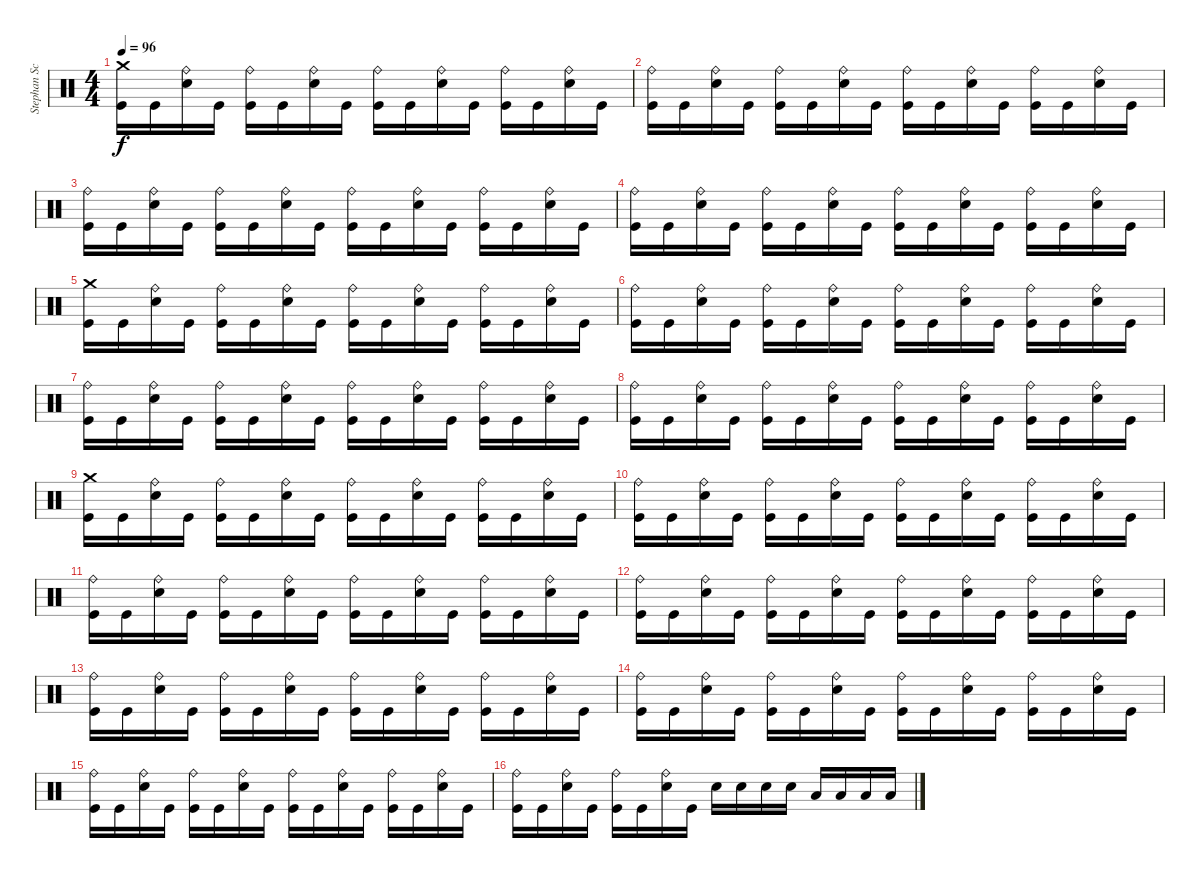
\track ("Stephan Schwarzmann" "Stephan Sc") {instrument percussion}
\staff {score}
\articulation defaults
\ts (4 4)
\tempo 96
\clef neutral
\ks c
("Kick (hit)" "Crash medium (hit)").16{dy f} "Kick (hit)".16 ("Snare (hit) 2" "Ride (bell)").16 "Kick (hit)".16 ("Kick (hit)" "Ride (bell)").16 "Kick (hit)".16 ("Snare (hit) 2" "Ride (bell)").16 "Kick (hit)".16 ("Kick (hit)" "Ride (bell)").16 "Kick (hit)".16 ("Snare (hit) 2" "Ride (bell)").16 "Kick (hit)".16 ("Kick (hit)" "Ride (bell)").16 "Kick (hit)".16 ("Snare (hit) 2" "Ride (bell)").16 "Kick (hit)".16 |
("Kick (hit)" "Ride (bell)").16 "Kick (hit)".16 ("Snare (hit) 2" "Ride (bell)").16 "Kick (hit)".16 ("Kick (hit)" "Ride (bell)").16 "Kick (hit)".16 ("Snare (hit) 2" "Ride (bell)").16 "Kick (hit)".16 ("Kick (hit)" "Ride (bell)").16 "Kick (hit)".16 ("Snare (hit) 2" "Ride (bell)").16 "Kick (hit)".16 ("Kick (hit)" "Ride (bell)").16 "Kick (hit)".16 ("Snare (hit) 2" "Ride (bell)").16 "Kick (hit)".16 |
("Kick (hit)" "Ride (bell)").16 "Kick (hit)".16 ("Snare (hit) 2" "Ride (bell)").16 "Kick (hit)".16 ("Kick (hit)" "Ride (bell)").16 "Kick (hit)".16 ("Snare (hit) 2" "Ride (bell)").16 "Kick (hit)".16 ("Kick (hit)" "Ride (bell)").16 "Kick (hit)".16 ("Snare (hit) 2" "Ride (bell)").16 "Kick (hit)".16 ("Kick (hit)" "Ride (bell)").16 "Kick (hit)".16 ("Snare (hit) 2" "Ride (bell)").16 "Kick (hit)".16 |
("Kick (hit)" "Ride (bell)").16 "Kick (hit)".16 ("Snare (hit) 2" "Ride (bell)").16 "Kick (hit)".16 ("Kick (hit)" "Ride (bell)").16 "Kick (hit)".16 ("Snare (hit) 2" "Ride (bell)").16 "Kick (hit)".16 ("Kick (hit)" "Ride (bell)").16 "Kick (hit)".16 ("Snare (hit) 2" "Ride (bell)").16 "Kick (hit)".16 ("Kick (hit)" "Ride (bell)").16 "Kick (hit)".16 ("Snare (hit) 2" "Ride (bell)").16 "Kick (hit)".16 |
("Kick (hit)" "Crash medium (hit)").16 "Kick (hit)".16 ("Snare (hit) 2" "Ride (bell)").16 "Kick (hit)".16 ("Kick (hit)" "Ride (bell)").16 "Kick (hit)".16 ("Snare (hit) 2" "Ride (bell)").16 "Kick (hit)".16 ("Kick (hit)" "Ride (bell)").16 "Kick (hit)".16 ("Snare (hit) 2" "Ride (bell)").16 "Kick (hit)".16 ("Kick (hit)" "Ride (bell)").16 "Kick (hit)".16 ("Snare (hit) 2" "Ride (bell)").16 "Kick (hit)".16 |
("Kick (hit)" "Ride (bell)").16 "Kick (hit)".16 ("Snare (hit) 2" "Ride (bell)").16 "Kick (hit)".16 ("Kick (hit)" "Ride (bell)").16 "Kick (hit)".16 ("Snare (hit) 2" "Ride (bell)").16 "Kick (hit)".16 ("Kick (hit)" "Ride (bell)").16 "Kick (hit)".16 ("Snare (hit) 2" "Ride (bell)").16 "Kick (hit)".16 ("Kick (hit)" "Ride (bell)").16 "Kick (hit)".16 ("Snare (hit) 2" "Ride (bell)").16 "Kick (hit)".16 |
("Kick (hit)" "Ride (bell)").16 "Kick (hit)".16 ("Snare (hit) 2" "Ride (bell)").16 "Kick (hit)".16 ("Kick (hit)" "Ride (bell)").16 "Kick (hit)".16 ("Snare (hit) 2" "Ride (bell)").16 "Kick (hit)".16 ("Kick (hit)" "Ride (bell)").16 "Kick (hit)".16 ("Snare (hit) 2" "Ride (bell)").16 "Kick (hit)".16 ("Kick (hit)" "Ride (bell)").16 "Kick (hit)".16 ("Snare (hit) 2" "Ride (bell)").16 "Kick (hit)".16 |
("Kick (hit)" "Ride (bell)").16 "Kick (hit)".16 ("Snare (hit) 2" "Ride (bell)").16 "Kick (hit)".16 ("Kick (hit)" "Ride (bell)").16 "Kick (hit)".16 ("Snare (hit) 2" "Ride (bell)").16 "Kick (hit)".16 ("Kick (hit)" "Ride (bell)").16 "Kick (hit)".16 ("Snare (hit) 2" "Ride (bell)").16 "Kick (hit)".16 ("Kick (hit)" "Ride (bell)").16 "Kick (hit)".16 ("Snare (hit) 2" "Ride (bell)").16 "Kick (hit)".16 |
("Kick (hit)" "Crash medium (hit)").16 "Kick (hit)".16 ("Snare (hit) 2" "Ride (bell)").16 "Kick (hit)".16 ("Kick (hit)" "Ride (bell)").16 "Kick (hit)".16 ("Snare (hit) 2" "Ride (bell)").16 "Kick (hit)".16 ("Kick (hit)" "Ride (bell)").16 "Kick (hit)".16 ("Snare (hit) 2" "Ride (bell)").16 "Kick (hit)".16 ("Kick (hit)" "Ride (bell)").16 "Kick (hit)".16 ("Snare (hit) 2" "Ride (bell)").16 "Kick (hit)".16 |
("Kick (hit)" "Ride (bell)").16 "Kick (hit)".16 ("Snare (hit) 2" "Ride (bell)").16 "Kick (hit)".16 ("Kick (hit)" "Ride (bell)").16 "Kick (hit)".16 ("Snare (hit) 2" "Ride (bell)").16 "Kick (hit)".16 ("Kick (hit)" "Ride (bell)").16 "Kick (hit)".16 ("Snare (hit) 2" "Ride (bell)").16 "Kick (hit)".16 ("Kick (hit)" "Ride (bell)").16 "Kick (hit)".16 ("Snare (hit) 2" "Ride (bell)").16 "Kick (hit)".16 |
("Kick (hit)" "Ride (bell)").16 "Kick (hit)".16 ("Snare (hit) 2" "Ride (bell)").16 "Kick (hit)".16 ("Kick (hit)" "Ride (bell)").16 "Kick (hit)".16 ("Snare (hit) 2" "Ride (bell)").16 "Kick (hit)".16 ("Kick (hit)" "Ride (bell)").16 "Kick (hit)".16 ("Snare (hit) 2" "Ride (bell)").16 "Kick (hit)".16 ("Kick (hit)" "Ride (bell)").16 "Kick (hit)".16 ("Snare (hit) 2" "Ride (bell)").16 "Kick (hit)".16 |
("Kick (hit)" "Ride (bell)").16 "Kick (hit)".16 ("Snare (hit) 2" "Ride (bell)").16 "Kick (hit)".16 ("Kick (hit)" "Ride (bell)").16 "Kick (hit)".16 ("Snare (hit) 2" "Ride (bell)").16 "Kick (hit)".16 ("Kick (hit)" "Ride (bell)").16 "Kick (hit)".16 ("Snare (hit) 2" "Ride (bell)").16 "Kick (hit)".16 ("Kick (hit)" "Ride (bell)").16 "Kick (hit)".16 ("Snare (hit) 2" "Ride (bell)").16 "Kick (hit)".16 |
("Kick (hit)" "Ride (bell)").16 "Kick (hit)".16 ("Snare (hit) 2" "Ride (bell)").16 "Kick (hit)".16 ("Kick (hit)" "Ride (bell)").16 "Kick (hit)".16 ("Snare (hit) 2" "Ride (bell)").16 "Kick (hit)".16 ("Kick (hit)" "Ride (bell)").16 "Kick (hit)".16 ("Snare (hit) 2" "Ride (bell)").16 "Kick (hit)".16 ("Kick (hit)" "Ride (bell)").16 "Kick (hit)".16 ("Snare (hit) 2" "Ride (bell)").16 "Kick (hit)".16 |
("Kick (hit)" "Ride (bell)").16 "Kick (hit)".16 ("Snare (hit) 2" "Ride (bell)").16 "Kick (hit)".16 ("Kick (hit)" "Ride (bell)").16 "Kick (hit)".16 ("Snare (hit) 2" "Ride (bell)").16 "Kick (hit)".16 ("Kick (hit)" "Ride (bell)").16 "Kick (hit)".16 ("Snare (hit) 2" "Ride (bell)").16 "Kick (hit)".16 ("Kick (hit)" "Ride (bell)").16 "Kick (hit)".16 ("Snare (hit) 2" "Ride (bell)").16 "Kick (hit)".16 |
("Kick (hit)" "Ride (bell)").16 "Kick (hit)".16 ("Snare (hit) 2" "Ride (bell)").16 "Kick (hit)".16 ("Kick (hit)" "Ride (bell)").16 "Kick (hit)".16 ("Snare (hit) 2" "Ride (bell)").16 "Kick (hit)".16 ("Kick (hit)" "Ride (bell)").16 "Kick (hit)".16 ("Snare (hit) 2" "Ride (bell)").16 "Kick (hit)".16 ("Kick (hit)" "Ride (bell)").16 "Kick (hit)".16 ("Snare (hit) 2" "Ride (bell)").16 "Kick (hit)".16 |
("Kick (hit)" "Ride (bell)").16 "Kick (hit)".16 ("Snare (hit) 2" "Ride (bell)").16 "Kick (hit)".16 ("Kick (hit)" "Ride (bell)").16 "Kick (hit)".16 ("Snare (hit) 2" "Ride (bell)").16 "Kick (hit)".16 "Snare (hit) 2".16 "Snare (hit) 2".16 "Snare (hit) 2".16 "Snare (hit) 2".16 "Low Tom (hit)".16 "Low Tom (hit)".16 "Low Floor Tom (hit)".16 "Low Floor Tom (hit)".16
